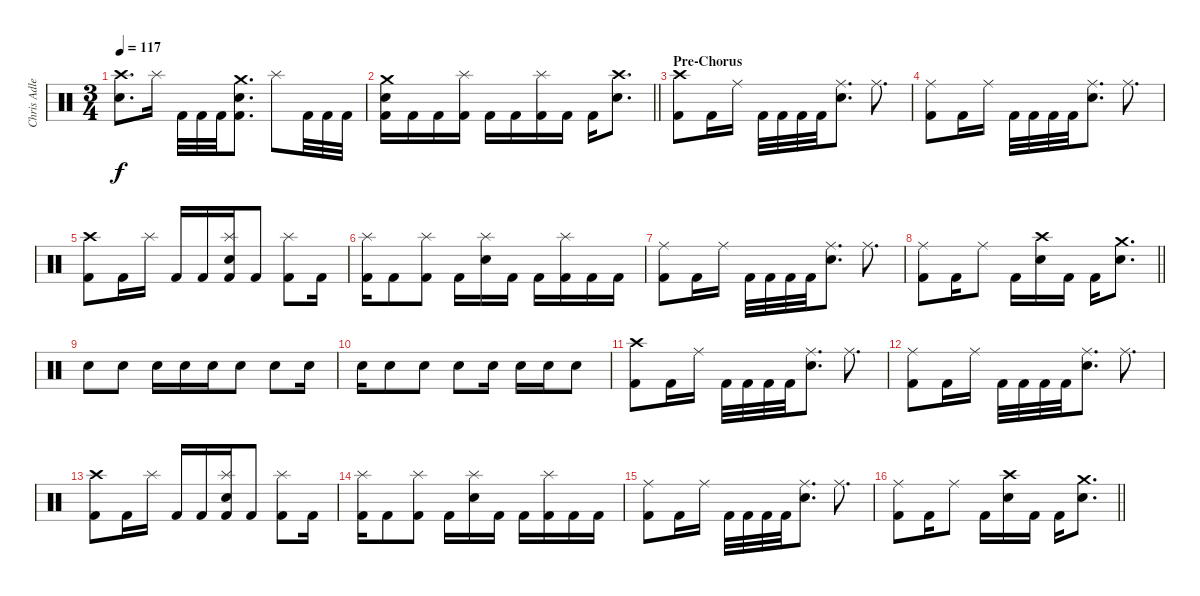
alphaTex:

\track ("Chris Adler" "Chris Adle") {instrument percussion}
\staff {score}
\articulation defaults
\ts (3 4)
\tempo 117
\clef neutral
\ks c
("Crash high (hit)" "Electric Snare (hit)").8{d dy f} "Splash (hit)".16 "Kick (hit) 2".32 "Kick (hit) 2".32 "Kick (hit) 2".32 ("Crash medium (hit)" "Electric Snare (hit)" "Kick (hit) 2").8{d} "Splash (hit)".8 "Kick (hit) 2".32 "Kick (hit) 2".32 "Kick (hit) 2".32 |
\barLineRight lightlight
("Crash medium (hit)" "Electric Snare (hit)" "Kick (hit) 2").16 "Kick (hit) 2".16 "Kick (hit) 2".16 ("Splash (hit)" "Kick (hit) 2").16 "Kick (hit) 2".16 "Kick (hit) 2".16 ("Splash (hit)" "Kick (hit) 2").16 "Kick (hit) 2".16 "Kick (hit) 2".16 ("Crash high (hit)" "Electric Snare (hit)").8{d} |
\section ("" "Pre-Chorus")
("Crash high (hit)" "Kick (hit) 2").8 "Kick (hit) 2".16 "Ride (middle)".16 "Kick (hit) 2".32 "Kick (hit) 2".32 "Kick (hit) 2".32 "Kick (hit) 2".32 ("Ride (middle)" "Electric Snare (hit)").8{d} "Ride (middle)".8{d} |
("Ride (middle)" "Kick (hit) 2").8 "Kick (hit) 2".16 "Ride (middle)".16 "Kick (hit) 2".32 "Kick (hit) 2".32 "Kick (hit) 2".32 "Kick (hit) 2".32 ("Ride (middle)" "Electric Snare (hit)").8{d} "Ride (middle)".8{d} |
("Crash high (hit)" "Kick (hit) 2").8 "Kick (hit) 2".16 "Splash (hit)".16 "Kick (hit) 2".16 "Kick (hit) 2".16 ("Splash (hit)" "Electric Snare (hit)" "Kick (hit) 2").16 "Kick (hit) 2".8 ("Splash (hit)" "Kick (hit) 2").8 "Kick (hit) 2".16 |
("Splash (hit)" "Kick (hit) 2").16 "Kick (hit) 2".8 ("Splash (hit)" "Kick (hit) 2").8 "Kick (hit) 2".16 ("Splash (hit)" "Electric Snare (hit)").16 "Kick (hit) 2".16 "Kick (hit) 2".16 ("Splash (hit)" "Kick (hit) 2").16 "Kick (hit) 2".16 "Kick (hit) 2".16 |
("Ride (middle)" "Kick (hit) 2").8 "Kick (hit) 2".16 "Ride (middle)".16 "Kick (hit) 2".32 "Kick (hit) 2".32 "Kick (hit) 2".32 "Kick (hit) 2".32 ("Ride (middle)" "Electric Snare (hit)").8{d} "Ride (middle)".8{d} |
\barLineRight lightlight
("Ride (middle)" "Kick (hit) 2").8 "Kick (hit) 2".16 "Ride (middle)".8 "Kick (hit) 2".16 ("Crash high (hit)" "Electric Snare (hit)").16 "Kick (hit) 2".16 "Kick (hit) 2".16 ("Crash medium (hit)" "Electric Snare (hit)").8{d} |
"Electric Snare (hit)".8 "Electric Snare (hit)".8 "Electric Snare (hit)".16 "Electric Snare (hit)".16 "Electric Snare (hit)".16 "Electric Snare (hit)".8 "Electric Snare (hit)".8 "Electric Snare (hit)".16 |
"Electric Snare (hit)".16 "Electric Snare (hit)".8 "Electric Snare (hit)".8 "Electric Snare (hit)".8 "Electric Snare (hit)".16 "Electric Snare (hit)".16 "Electric Snare (hit)".16 "Electric Snare (hit)".8 |
("Crash high (hit)" "Kick (hit) 2").8 "Kick (hit) 2".16 "Ride (middle)".16 "Kick (hit) 2".32 "Kick (hit) 2".32 "Kick (hit) 2".32 "Kick (hit) 2".32 ("Ride (middle)" "Electric Snare (hit)").8{d} "Ride (middle)".8{d} |
("Ride (middle)" "Kick (hit) 2").8 "Kick (hit) 2".16 "Ride (middle)".16 "Kick (hit) 2".32 "Kick (hit) 2".32 "Kick (hit) 2".32 "Kick (hit) 2".32 ("Ride (middle)" "Electric Snare (hit)").8{d} "Ride (middle)".8{d} |
("Crash high (hit)" "Kick (hit) 2").8 "Kick (hit) 2".16 "Splash (hit)".16 "Kick (hit) 2".16 "Kick (hit) 2".16 ("Splash (hit)" "Electric Snare (hit)" "Kick (hit) 2").16 "Kick (hit) 2".8 ("Splash (hit)" "Kick (hit) 2").8 "Kick (hit) 2".16 |
("Splash (hit)" "Kick (hit) 2").16 "Kick (hit) 2".8 ("Splash (hit)" "Kick (hit) 2").8 "Kick (hit) 2".16 ("Splash (hit)" "Electric Snare (hit)").16 "Kick (hit) 2".16 "Kick (hit) 2".16 ("Splash (hit)" "Kick (hit) 2").16 "Kick (hit) 2".16 "Kick (hit) 2".16 |
("Ride (middle)" "Kick (hit) 2").8 "Kick (hit) 2".16 "Ride (middle)".16 "Kick (hit) 2".32 "Kick (hit) 2".32 "Kick (hit) 2".32 "Kick (hit) 2".32 ("Ride (middle)" "Electric Snare (hit)").8{d} "Ride (middle)".8{d} |
\barLineRight lightlight
("Ride (middle)" "Kick (hit) 2").8 "Kick (hit) 2".16 "Ride (middle)".8 "Kick (hit) 2".16 ("Crash high (hit)" "Electric Snare (hit)").16 "Kick (hit) 2".16 "Kick (hit) 2".16 ("Crash medium (hit)" "Electric Snare (hit)").8{d}
